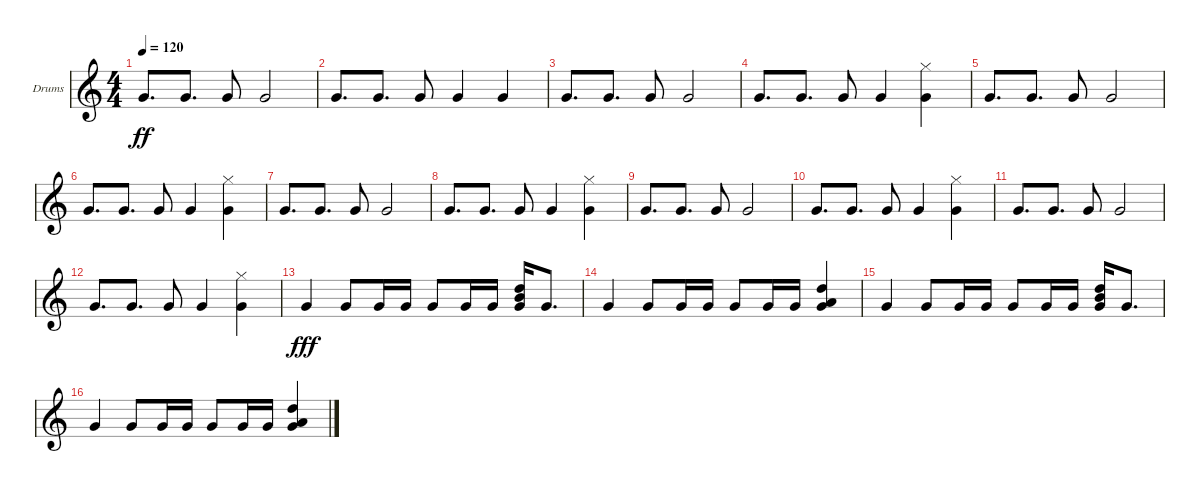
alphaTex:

\defaultSystemsLayout 4
\bracketExtendMode groupsimilarinstruments
\firstSystemTrackNameOrientation horizontal
\otherSystemsTrackNameOrientation horizontal
\track ("Drumkit" "Drums") {instrument percussion}
\staff {score}
\articulation defaults
\ts (4 4)
\tempo 120
\clef g2
\ks c "Very Low Tom (hit)".8{d dy ff} "Very Low Tom (hit)".8{d} "Very Low Tom (hit)".8 "Very Low Tom (hit)".2
|
"Very Low Tom (hit)".8{d} "Very Low Tom (hit)".8{d} "Very Low Tom (hit)".8 "Very Low Tom (hit)".4 "Very Low Tom (hit)".4 |
"Very Low Tom (hit)".8{d} "Very Low Tom (hit)".8{d} "Very Low Tom (hit)".8 "Very Low Tom (hit)".2 |
"Very Low Tom (hit)".8{d} "Very Low Tom (hit)".8{d} "Very Low Tom (hit)".8 "Very Low Tom (hit)".4 ("Very Low Tom (hit)" "Hi-Hat (closed)").4 |
"Very Low Tom (hit)".8{d} "Very Low Tom (hit)".8{d} "Very Low Tom (hit)".8 "Very Low Tom (hit)".2 |
"Very Low Tom (hit)".8{d} "Very Low Tom (hit)".8{d} "Very Low Tom (hit)".8 "Very Low Tom (hit)".4 ("Very Low Tom (hit)" "Hi-Hat (closed)").4 |
"Very Low Tom (hit)".8{d} "Very Low Tom (hit)".8{d} "Very Low Tom (hit)".8 "Very Low Tom (hit)".2 |
"Very Low Tom (hit)".8{d} "Very Low Tom (hit)".8{d} "Very Low Tom (hit)".8 "Very Low Tom (hit)".4 ("Very Low Tom (hit)" "Hi-Hat (closed)").4 |
"Very Low Tom (hit)".8{d} "Very Low Tom (hit)".8{d} "Very Low Tom (hit)".8 "Very Low Tom (hit)".2 |
"Very Low Tom (hit)".8{d} "Very Low Tom (hit)".8{d} "Very Low Tom (hit)".8 "Very Low Tom (hit)".4 ("Very Low Tom (hit)" "Hi-Hat (closed)").4 |
"Very Low Tom (hit)".8{d} "Very Low Tom (hit)".8{d} "Very Low Tom (hit)".8 "Very Low Tom (hit)".2 |
"Very Low Tom (hit)".8{d} "Very Low Tom (hit)".8{d} "Very Low Tom (hit)".8 "Very Low Tom (hit)".4 ("Very Low Tom (hit)" "Hi-Hat (closed)").4 |
"Very Low Tom (hit)".4{dy fff} "Very Low Tom (hit)".8 "Very Low Tom (hit)".16 "Very Low Tom (hit)".16 "Very Low Tom (hit)".8 "Very Low Tom (hit)".16 "Very Low Tom (hit)".16 ("Very Low Tom (hit)" "High Tom (hit)" "Mid Tom (hit)").16 "Very Low Tom (hit)".8{d} |
"Very Low Tom (hit)".4 "Very Low Tom (hit)".8 "Very Low Tom (hit)".16 "Very Low Tom (hit)".16 "Very Low Tom (hit)".8 "Very Low Tom (hit)".16 "Very Low Tom (hit)".16 ("Very Low Tom (hit)" "Low Tom (hit)" "High Tom (hit)").4 |
"Very Low Tom (hit)".4 "Very Low Tom (hit)".8 "Very Low Tom (hit)".16 "Very Low Tom (hit)".16 "Very Low Tom (hit)".8 "Very Low Tom (hit)".16 "Very Low Tom (hit)".16 ("Very Low Tom (hit)" "High Tom (hit)" "Mid Tom (hit)").16 "Very Low Tom (hit)".8{d} |
"Very Low Tom (hit)".4 "Very Low Tom (hit)".8 "Very Low Tom (hit)".16 "Very Low Tom (hit)".16 "Very Low Tom (hit)".8 "Very Low Tom (hit)".16 "Very Low Tom (hit)".16 ("Very Low Tom (hit)" "Low Tom (hit)" "High Tom (hit)").4
